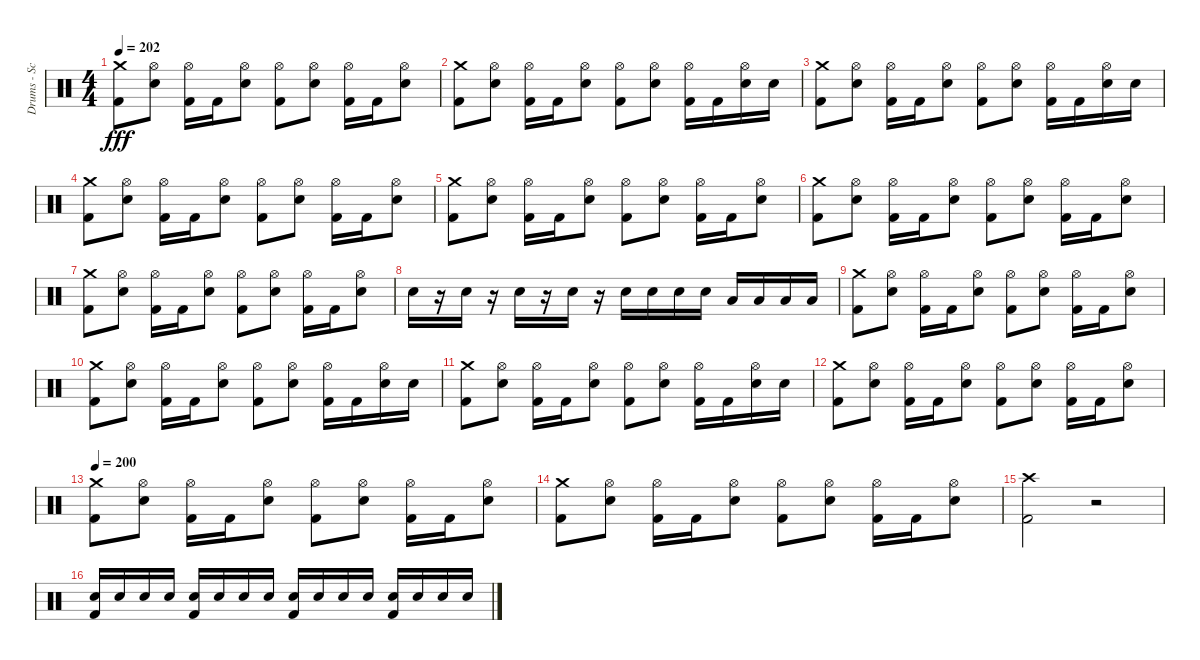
\track ("Drums - Scott" "Drums - Sc") {instrument percussion}
\staff {score}
\articulation defaults
\ts (4 4)
\tempo 202
\clef neutral
\ks c
("Kick (hit) 2" "Crash medium (hit)").8{dy fff} ("Hi-Hat (open)" "Electric Snare (hit)").8 ("Hi-Hat (open)" "Kick (hit) 2").16 "Kick (hit) 2".16 ("Hi-Hat (open)" "Electric Snare (hit)").8 ("Hi-Hat (open)" "Kick (hit) 2").8 ("Hi-Hat (open)" "Electric Snare (hit)").8 ("Hi-Hat (open)" "Kick (hit) 2").16 "Kick (hit) 2".16 ("Hi-Hat (open)" "Electric Snare (hit)").8 |
("Kick (hit) 2" "Crash medium (hit)").8 ("Hi-Hat (open)" "Electric Snare (hit)").8 ("Hi-Hat (open)" "Kick (hit) 2").16 "Kick (hit) 2".16 ("Hi-Hat (open)" "Electric Snare (hit)").8 ("Hi-Hat (open)" "Kick (hit) 2").8 ("Hi-Hat (open)" "Electric Snare (hit)").8 ("Hi-Hat (open)" "Kick (hit) 2").16 "Kick (hit) 2".16 ("Hi-Hat (open)" "Electric Snare (hit)").16 "Electric Snare (hit)".16 |
("Kick (hit) 2" "Crash medium (hit)").8 ("Hi-Hat (open)" "Electric Snare (hit)").8 ("Hi-Hat (open)" "Kick (hit) 2").16 "Kick (hit) 2".16 ("Hi-Hat (open)" "Electric Snare (hit)").8 ("Hi-Hat (open)" "Kick (hit) 2").8 ("Hi-Hat (open)" "Electric Snare (hit)").8 ("Hi-Hat (open)" "Kick (hit) 2").16 "Kick (hit) 2".16 ("Hi-Hat (open)" "Electric Snare (hit)").16 "Electric Snare (hit)".16 |
("Kick (hit) 2" "Crash medium (hit)").8 ("Hi-Hat (open)" "Electric Snare (hit)").8 ("Hi-Hat (open)" "Kick (hit) 2").16 "Kick (hit) 2".16 ("Hi-Hat (open)" "Electric Snare (hit)").8 ("Hi-Hat (open)" "Kick (hit) 2").8 ("Hi-Hat (open)" "Electric Snare (hit)").8 ("Hi-Hat (open)" "Kick (hit) 2").16 "Kick (hit) 2".16 ("Hi-Hat (open)" "Electric Snare (hit)").8 |
("Kick (hit) 2" "Crash medium (hit)").8 ("Hi-Hat (open)" "Electric Snare (hit)").8 ("Hi-Hat (open)" "Kick (hit) 2").16 "Kick (hit) 2".16 ("Hi-Hat (open)" "Electric Snare (hit)").8 ("Hi-Hat (open)" "Kick (hit) 2").8 ("Hi-Hat (open)" "Electric Snare (hit)").8 ("Hi-Hat (open)" "Kick (hit) 2").16 "Kick (hit) 2".16 ("Hi-Hat (open)" "Electric Snare (hit)").8 |
("Kick (hit) 2" "Crash medium (hit)").8 ("Hi-Hat (open)" "Electric Snare (hit)").8 ("Hi-Hat (open)" "Kick (hit) 2").16 "Kick (hit) 2".16 ("Hi-Hat (open)" "Electric Snare (hit)").8 ("Hi-Hat (open)" "Kick (hit) 2").8 ("Hi-Hat (open)" "Electric Snare (hit)").8 ("Hi-Hat (open)" "Kick (hit) 2").16 "Kick (hit) 2".16 ("Hi-Hat (open)" "Electric Snare (hit)").8 |
("Kick (hit) 2" "Crash medium (hit)").8 ("Hi-Hat (open)" "Electric Snare (hit)").8 ("Hi-Hat (open)" "Kick (hit) 2").16 "Kick (hit) 2".16 ("Hi-Hat (open)" "Electric Snare (hit)").8 ("Hi-Hat (open)" "Kick (hit) 2").8 ("Hi-Hat (open)" "Electric Snare (hit)").8 ("Hi-Hat (open)" "Kick (hit) 2").16 "Kick (hit) 2".16 ("Hi-Hat (open)" "Electric Snare (hit)").8 |
"Electric Snare (hit)".16 r.16 "Electric Snare (hit)".16 r.16 "Electric Snare (hit)".16 r.16 "Electric Snare (hit)".16 r.16 "Electric Snare (hit)".16 "Electric Snare (hit)".16 "Electric Snare (hit)".16 "Electric Snare (hit)".16 "Low Tom (hit)".16 "Low Tom (hit)".16 "Low Tom (hit)".16 "Low Tom (hit)".16 |
("Kick (hit) 2" "Crash medium (hit)").8 ("Hi-Hat (open)" "Electric Snare (hit)").8 ("Hi-Hat (open)" "Kick (hit) 2").16 "Kick (hit) 2".16 ("Hi-Hat (open)" "Electric Snare (hit)").8 ("Hi-Hat (open)" "Kick (hit) 2").8 ("Hi-Hat (open)" "Electric Snare (hit)").8 ("Hi-Hat (open)" "Kick (hit) 2").16 "Kick (hit) 2".16 ("Hi-Hat (open)" "Electric Snare (hit)").8 |
("Kick (hit) 2" "Crash medium (hit)").8 ("Hi-Hat (open)" "Electric Snare (hit)").8 ("Hi-Hat (open)" "Kick (hit) 2").16 "Kick (hit) 2".16 ("Hi-Hat (open)" "Electric Snare (hit)").8 ("Hi-Hat (open)" "Kick (hit) 2").8 ("Hi-Hat (open)" "Electric Snare (hit)").8 ("Hi-Hat (open)" "Kick (hit) 2").16 "Kick (hit) 2".16 ("Hi-Hat (open)" "Electric Snare (hit)").16 "Electric Snare (hit)".16 |
("Kick (hit) 2" "Crash medium (hit)").8 ("Hi-Hat (open)" "Electric Snare (hit)").8 ("Hi-Hat (open)" "Kick (hit) 2").16 "Kick (hit) 2".16 ("Hi-Hat (open)" "Electric Snare (hit)").8 ("Hi-Hat (open)" "Kick (hit) 2").8 ("Hi-Hat (open)" "Electric Snare (hit)").8 ("Hi-Hat (open)" "Kick (hit) 2").16 "Kick (hit) 2".16 ("Hi-Hat (open)" "Electric Snare (hit)").16 "Electric Snare (hit)".16 |
("Kick (hit) 2" "Crash medium (hit)").8 ("Hi-Hat (open)" "Electric Snare (hit)").8 ("Hi-Hat (open)" "Kick (hit) 2").16 "Kick (hit) 2".16 ("Hi-Hat (open)" "Electric Snare (hit)").8 ("Hi-Hat (open)" "Kick (hit) 2").8 ("Hi-Hat (open)" "Electric Snare (hit)").8 ("Hi-Hat (open)" "Kick (hit) 2").16 "Kick (hit) 2".16 ("Hi-Hat (open)" "Electric Snare (hit)").8 |
\tempo 200
("Kick (hit) 2" "Crash medium (hit)").8 ("Hi-Hat (open)" "Electric Snare (hit)").8 ("Hi-Hat (open)" "Kick (hit) 2").16 "Kick (hit) 2".16 ("Hi-Hat (open)" "Electric Snare (hit)").8 ("Hi-Hat (open)" "Kick (hit) 2").8 ("Hi-Hat (open)" "Electric Snare (hit)").8 ("Hi-Hat (open)" "Kick (hit) 2").16 "Kick (hit) 2".16 ("Hi-Hat (open)" "Electric Snare (hit)").8 |
("Kick (hit) 2" "Crash medium (hit)").8 ("Hi-Hat (open)" "Electric Snare (hit)").8 ("Hi-Hat (open)" "Kick (hit) 2").16 "Kick (hit) 2".16 ("Hi-Hat (open)" "Electric Snare (hit)").8 ("Hi-Hat (open)" "Kick (hit) 2").8 ("Hi-Hat (open)" "Electric Snare (hit)").8 ("Hi-Hat (open)" "Kick (hit) 2").16 "Kick (hit) 2".16 ("Hi-Hat (open)" "Electric Snare (hit)").8 |
("Kick (hit) 2" "Crash high (hit)").2 r.2 |
("Electric Snare (hit)" "Kick (hit) 2").16 "Electric Snare (hit)".16 "Electric Snare (hit)".16 "Electric Snare (hit)".16 ("Electric Snare (hit)" "Kick (hit) 2").16 "Electric Snare (hit)".16 "Electric Snare (hit)".16 "Electric Snare (hit)".16 ("Electric Snare (hit)" "Kick (hit) 2").16 "Electric Snare (hit)".16 "Electric Snare (hit)".16 "Electric Snare (hit)".16 ("Electric Snare (hit)" "Kick (hit) 2").16 "Electric Snare (hit)".16 "Electric Snare (hit)".16 "Electric Snare (hit)".16
